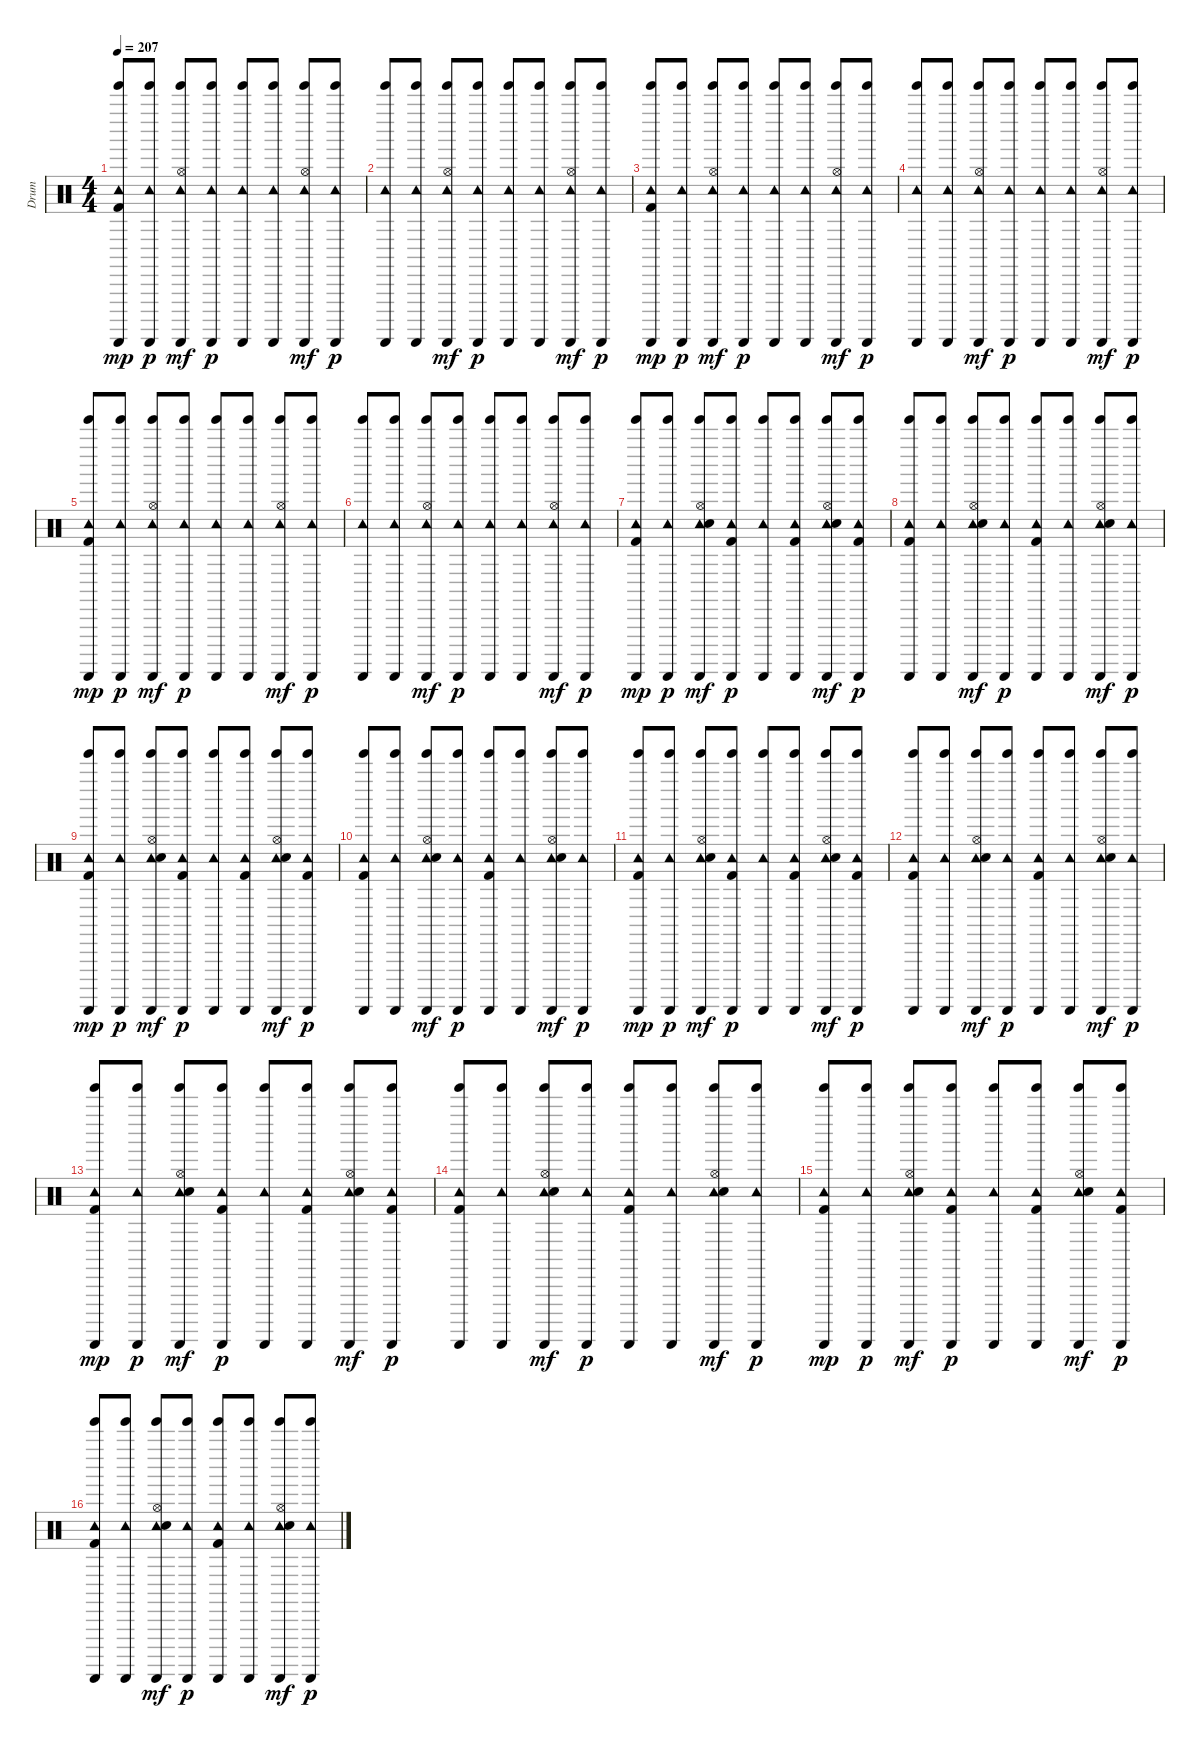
\track ("Drum" "Drum") {instrument percussion}
\staff {score}
\articulation defaults
\ts (4 4)
\tempo 207
\clef neutral
\ks c
("Tambourine (hit)" "Kick (hit) 2" "Tinkle Bell (hit)" "Guiro (scrap-return)").8{dy mp} ("Tambourine (hit)" "Tinkle Bell (hit)" "Guiro (scrap-return)").8{dy p} ("Tambourine (hit)" "Hi-Hat (open)" "Tinkle Bell (hit)" "Guiro (scrap-return)").8{dy mf} ("Tambourine (hit)" "Tinkle Bell (hit)" "Guiro (scrap-return)").8{dy p} ("Tambourine (hit)" "Tinkle Bell (hit)" "Guiro (scrap-return)").8 ("Tambourine (hit)" "Tinkle Bell (hit)" "Guiro (scrap-return)").8 ("Tambourine (hit)" "Hi-Hat (open)" "Tinkle Bell (hit)" "Guiro (scrap-return)").8{dy mf} ("Tambourine (hit)" "Tinkle Bell (hit)" "Guiro (scrap-return)").8{dy p} |
("Tambourine (hit)" "Tinkle Bell (hit)" "Guiro (scrap-return)").8 ("Tambourine (hit)" "Tinkle Bell (hit)" "Guiro (scrap-return)").8 ("Tambourine (hit)" "Hi-Hat (open)" "Tinkle Bell (hit)" "Guiro (scrap-return)").8{dy mf} ("Tambourine (hit)" "Tinkle Bell (hit)" "Guiro (scrap-return)").8{dy p} ("Tambourine (hit)" "Tinkle Bell (hit)" "Guiro (scrap-return)").8 ("Tambourine (hit)" "Tinkle Bell (hit)" "Guiro (scrap-return)").8 ("Tambourine (hit)" "Hi-Hat (open)" "Tinkle Bell (hit)" "Guiro (scrap-return)").8{dy mf} ("Tambourine (hit)" "Tinkle Bell (hit)" "Guiro (scrap-return)").8{dy p} |
("Tambourine (hit)" "Kick (hit) 2" "Tinkle Bell (hit)" "Guiro (scrap-return)").8{dy mp} ("Tambourine (hit)" "Tinkle Bell (hit)" "Guiro (scrap-return)").8{dy p} ("Tambourine (hit)" "Hi-Hat (open)" "Tinkle Bell (hit)" "Guiro (scrap-return)").8{dy mf} ("Tambourine (hit)" "Tinkle Bell (hit)" "Guiro (scrap-return)").8{dy p} ("Tambourine (hit)" "Tinkle Bell (hit)" "Guiro (scrap-return)").8 ("Tambourine (hit)" "Tinkle Bell (hit)" "Guiro (scrap-return)").8 ("Tambourine (hit)" "Hi-Hat (open)" "Tinkle Bell (hit)" "Guiro (scrap-return)").8{dy mf} ("Tambourine (hit)" "Tinkle Bell (hit)" "Guiro (scrap-return)").8{dy p} |
("Tambourine (hit)" "Tinkle Bell (hit)" "Guiro (scrap-return)").8 ("Tambourine (hit)" "Tinkle Bell (hit)" "Guiro (scrap-return)").8 ("Tambourine (hit)" "Hi-Hat (open)" "Tinkle Bell (hit)" "Guiro (scrap-return)").8{dy mf} ("Tambourine (hit)" "Tinkle Bell (hit)" "Guiro (scrap-return)").8{dy p} ("Tambourine (hit)" "Tinkle Bell (hit)" "Guiro (scrap-return)").8 ("Tambourine (hit)" "Tinkle Bell (hit)" "Guiro (scrap-return)").8 ("Tambourine (hit)" "Hi-Hat (open)" "Tinkle Bell (hit)" "Guiro (scrap-return)").8{dy mf} ("Tambourine (hit)" "Tinkle Bell (hit)" "Guiro (scrap-return)").8{dy p} |
("Tambourine (hit)" "Kick (hit) 2" "Tinkle Bell (hit)" "Guiro (scrap-return)").8{dy mp} ("Tambourine (hit)" "Tinkle Bell (hit)" "Guiro (scrap-return)").8{dy p} ("Tambourine (hit)" "Hi-Hat (open)" "Tinkle Bell (hit)" "Guiro (scrap-return)").8{dy mf} ("Tambourine (hit)" "Tinkle Bell (hit)" "Guiro (scrap-return)").8{dy p} ("Tambourine (hit)" "Tinkle Bell (hit)" "Guiro (scrap-return)").8 ("Tambourine (hit)" "Tinkle Bell (hit)" "Guiro (scrap-return)").8 ("Tambourine (hit)" "Hi-Hat (open)" "Tinkle Bell (hit)" "Guiro (scrap-return)").8{dy mf} ("Tambourine (hit)" "Tinkle Bell (hit)" "Guiro (scrap-return)").8{dy p} |
("Tambourine (hit)" "Tinkle Bell (hit)" "Guiro (scrap-return)").8 ("Tambourine (hit)" "Tinkle Bell (hit)" "Guiro (scrap-return)").8 ("Tambourine (hit)" "Hi-Hat (open)" "Tinkle Bell (hit)" "Guiro (scrap-return)").8{dy mf} ("Tambourine (hit)" "Tinkle Bell (hit)" "Guiro (scrap-return)").8{dy p} ("Tambourine (hit)" "Tinkle Bell (hit)" "Guiro (scrap-return)").8 ("Tambourine (hit)" "Tinkle Bell (hit)" "Guiro (scrap-return)").8 ("Tambourine (hit)" "Hi-Hat (open)" "Tinkle Bell (hit)" "Guiro (scrap-return)").8{dy mf} ("Tambourine (hit)" "Tinkle Bell (hit)" "Guiro (scrap-return)").8{dy p} |
("Tambourine (hit)" "Kick (hit) 2" "Tinkle Bell (hit)" "Guiro (scrap-return)").8{dy mp} ("Tambourine (hit)" "Tinkle Bell (hit)" "Guiro (scrap-return)").8{dy p} ("Tambourine (hit)" "Hi-Hat (open)" "Snare (hit) 2" "Tinkle Bell (hit)" "Guiro (scrap-return)").8{dy mf} ("Tambourine (hit)" "Kick (hit) 2" "Tinkle Bell (hit)" "Guiro (scrap-return)").8{dy p} ("Tambourine (hit)" "Tinkle Bell (hit)" "Guiro (scrap-return)").8 ("Tambourine (hit)" "Kick (hit) 2" "Tinkle Bell (hit)" "Guiro (scrap-return)").8 ("Tambourine (hit)" "Hi-Hat (open)" "Snare (hit) 2" "Tinkle Bell (hit)" "Guiro (scrap-return)").8{dy mf} ("Tambourine (hit)" "Kick (hit) 2" "Tinkle Bell (hit)" "Guiro (scrap-return)").8{dy p} |
("Tambourine (hit)" "Kick (hit) 2" "Tinkle Bell (hit)" "Guiro (scrap-return)").8 ("Tambourine (hit)" "Tinkle Bell (hit)" "Guiro (scrap-return)").8 ("Tambourine (hit)" "Hi-Hat (open)" "Snare (hit) 2" "Tinkle Bell (hit)" "Guiro (scrap-return)").8{dy mf} ("Tambourine (hit)" "Tinkle Bell (hit)" "Guiro (scrap-return)").8{dy p} ("Tambourine (hit)" "Kick (hit) 2" "Tinkle Bell (hit)" "Guiro (scrap-return)").8 ("Tambourine (hit)" "Tinkle Bell (hit)" "Guiro (scrap-return)").8 ("Tambourine (hit)" "Hi-Hat (open)" "Snare (hit) 2" "Tinkle Bell (hit)" "Guiro (scrap-return)").8{dy mf} ("Tambourine (hit)" "Tinkle Bell (hit)" "Guiro (scrap-return)").8{dy p} |
("Tambourine (hit)" "Kick (hit) 2" "Tinkle Bell (hit)" "Guiro (scrap-return)").8{dy mp} ("Tambourine (hit)" "Tinkle Bell (hit)" "Guiro (scrap-return)").8{dy p} ("Tambourine (hit)" "Hi-Hat (open)" "Snare (hit) 2" "Tinkle Bell (hit)" "Guiro (scrap-return)").8{dy mf} ("Tambourine (hit)" "Kick (hit) 2" "Tinkle Bell (hit)" "Guiro (scrap-return)").8{dy p} ("Tambourine (hit)" "Tinkle Bell (hit)" "Guiro (scrap-return)").8 ("Tambourine (hit)" "Kick (hit) 2" "Tinkle Bell (hit)" "Guiro (scrap-return)").8 ("Tambourine (hit)" "Hi-Hat (open)" "Snare (hit) 2" "Tinkle Bell (hit)" "Guiro (scrap-return)").8{dy mf} ("Tambourine (hit)" "Kick (hit) 2" "Tinkle Bell (hit)" "Guiro (scrap-return)").8{dy p} |
("Tambourine (hit)" "Kick (hit) 2" "Tinkle Bell (hit)" "Guiro (scrap-return)").8 ("Tambourine (hit)" "Tinkle Bell (hit)" "Guiro (scrap-return)").8 ("Tambourine (hit)" "Hi-Hat (open)" "Snare (hit) 2" "Tinkle Bell (hit)" "Guiro (scrap-return)").8{dy mf} ("Tambourine (hit)" "Tinkle Bell (hit)" "Guiro (scrap-return)").8{dy p} ("Tambourine (hit)" "Kick (hit) 2" "Tinkle Bell (hit)" "Guiro (scrap-return)").8 ("Tambourine (hit)" "Tinkle Bell (hit)" "Guiro (scrap-return)").8 ("Tambourine (hit)" "Hi-Hat (open)" "Snare (hit) 2" "Tinkle Bell (hit)" "Guiro (scrap-return)").8{dy mf} ("Tambourine (hit)" "Tinkle Bell (hit)" "Guiro (scrap-return)").8{dy p} |
("Tambourine (hit)" "Kick (hit) 2" "Tinkle Bell (hit)" "Guiro (scrap-return)").8{dy mp} ("Tambourine (hit)" "Tinkle Bell (hit)" "Guiro (scrap-return)").8{dy p} ("Tambourine (hit)" "Hi-Hat (open)" "Snare (hit) 2" "Tinkle Bell (hit)" "Guiro (scrap-return)").8{dy mf} ("Tambourine (hit)" "Kick (hit) 2" "Tinkle Bell (hit)" "Guiro (scrap-return)").8{dy p} ("Tambourine (hit)" "Tinkle Bell (hit)" "Guiro (scrap-return)").8 ("Tambourine (hit)" "Kick (hit) 2" "Tinkle Bell (hit)" "Guiro (scrap-return)").8 ("Tambourine (hit)" "Hi-Hat (open)" "Snare (hit) 2" "Tinkle Bell (hit)" "Guiro (scrap-return)").8{dy mf} ("Tambourine (hit)" "Kick (hit) 2" "Tinkle Bell (hit)" "Guiro (scrap-return)").8{dy p} |
("Tambourine (hit)" "Kick (hit) 2" "Tinkle Bell (hit)" "Guiro (scrap-return)").8 ("Tambourine (hit)" "Tinkle Bell (hit)" "Guiro (scrap-return)").8 ("Tambourine (hit)" "Hi-Hat (open)" "Snare (hit) 2" "Tinkle Bell (hit)" "Guiro (scrap-return)").8{dy mf} ("Tambourine (hit)" "Tinkle Bell (hit)" "Guiro (scrap-return)").8{dy p} ("Tambourine (hit)" "Kick (hit) 2" "Tinkle Bell (hit)" "Guiro (scrap-return)").8 ("Tambourine (hit)" "Tinkle Bell (hit)" "Guiro (scrap-return)").8 ("Tambourine (hit)" "Hi-Hat (open)" "Snare (hit) 2" "Tinkle Bell (hit)" "Guiro (scrap-return)").8{dy mf} ("Tambourine (hit)" "Tinkle Bell (hit)" "Guiro (scrap-return)").8{dy p} |
("Tambourine (hit)" "Kick (hit) 2" "Tinkle Bell (hit)" "Guiro (scrap-return)").8{dy mp} ("Tambourine (hit)" "Tinkle Bell (hit)" "Guiro (scrap-return)").8{dy p} ("Tambourine (hit)" "Hi-Hat (open)" "Snare (hit) 2" "Tinkle Bell (hit)" "Guiro (scrap-return)").8{dy mf} ("Tambourine (hit)" "Kick (hit) 2" "Tinkle Bell (hit)" "Guiro (scrap-return)").8{dy p} ("Tambourine (hit)" "Tinkle Bell (hit)" "Guiro (scrap-return)").8 ("Tambourine (hit)" "Kick (hit) 2" "Tinkle Bell (hit)" "Guiro (scrap-return)").8 ("Tambourine (hit)" "Hi-Hat (open)" "Snare (hit) 2" "Tinkle Bell (hit)" "Guiro (scrap-return)").8{dy mf} ("Tambourine (hit)" "Kick (hit) 2" "Tinkle Bell (hit)" "Guiro (scrap-return)").8{dy p} |
("Tambourine (hit)" "Kick (hit) 2" "Tinkle Bell (hit)" "Guiro (scrap-return)").8 ("Tambourine (hit)" "Tinkle Bell (hit)" "Guiro (scrap-return)").8 ("Tambourine (hit)" "Hi-Hat (open)" "Snare (hit) 2" "Tinkle Bell (hit)" "Guiro (scrap-return)").8{dy mf} ("Tambourine (hit)" "Tinkle Bell (hit)" "Guiro (scrap-return)").8{dy p} ("Tambourine (hit)" "Kick (hit) 2" "Tinkle Bell (hit)" "Guiro (scrap-return)").8 ("Tambourine (hit)" "Tinkle Bell (hit)" "Guiro (scrap-return)").8 ("Tambourine (hit)" "Hi-Hat (open)" "Snare (hit) 2" "Tinkle Bell (hit)" "Guiro (scrap-return)").8{dy mf} ("Tambourine (hit)" "Tinkle Bell (hit)" "Guiro (scrap-return)").8{dy p} |
("Tambourine (hit)" "Kick (hit) 2" "Tinkle Bell (hit)" "Guiro (scrap-return)").8{dy mp} ("Tambourine (hit)" "Tinkle Bell (hit)" "Guiro (scrap-return)").8{dy p} ("Tambourine (hit)" "Hi-Hat (open)" "Snare (hit) 2" "Tinkle Bell (hit)" "Guiro (scrap-return)").8{dy mf} ("Tambourine (hit)" "Kick (hit) 2" "Tinkle Bell (hit)" "Guiro (scrap-return)").8{dy p} ("Tambourine (hit)" "Tinkle Bell (hit)" "Guiro (scrap-return)").8 ("Tambourine (hit)" "Kick (hit) 2" "Tinkle Bell (hit)" "Guiro (scrap-return)").8 ("Tambourine (hit)" "Hi-Hat (open)" "Snare (hit) 2" "Tinkle Bell (hit)" "Guiro (scrap-return)").8{dy mf} ("Tambourine (hit)" "Kick (hit) 2" "Tinkle Bell (hit)" "Guiro (scrap-return)").8{dy p} |
("Tambourine (hit)" "Kick (hit) 2" "Tinkle Bell (hit)" "Guiro (scrap-return)").8 ("Tambourine (hit)" "Tinkle Bell (hit)" "Guiro (scrap-return)").8 ("Tambourine (hit)" "Hi-Hat (open)" "Snare (hit) 2" "Tinkle Bell (hit)" "Guiro (scrap-return)").8{dy mf} ("Tambourine (hit)" "Tinkle Bell (hit)" "Guiro (scrap-return)").8{dy p} ("Tambourine (hit)" "Kick (hit) 2" "Tinkle Bell (hit)" "Guiro (scrap-return)").8 ("Tambourine (hit)" "Tinkle Bell (hit)" "Guiro (scrap-return)").8 ("Tambourine (hit)" "Hi-Hat (open)" "Snare (hit) 2" "Tinkle Bell (hit)" "Guiro (scrap-return)").8{dy mf} ("Tambourine (hit)" "Tinkle Bell (hit)" "Guiro (scrap-return)").8{dy p}
